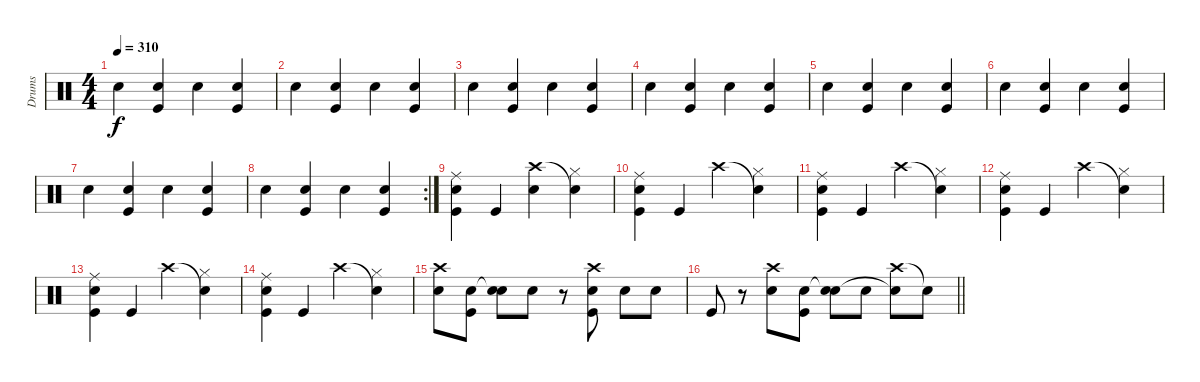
\track ("Drums" "Drums") {instrument percussion}
\staff {score}
\articulation defaults
\ts (4 4)
\tempo 310
\clef neutral
\ks c "Snare (hit) 2".4{dy f}
("Snare (hit) 2" "Kick (hit)").4 "Snare (hit) 2".4 ("Snare (hit) 2" "Kick (hit)").4 |
"Snare (hit) 2".4 ("Snare (hit) 2" "Kick (hit)").4 "Snare (hit) 2".4 ("Snare (hit) 2" "Kick (hit)").4 |
"Snare (hit) 2".4 ("Snare (hit) 2" "Kick (hit)").4 "Snare (hit) 2".4 ("Snare (hit) 2" "Kick (hit)").4 |
"Snare (hit) 2".4 ("Snare (hit) 2" "Kick (hit)").4 "Snare (hit) 2".4 ("Snare (hit) 2" "Kick (hit)").4 |
"Snare (hit) 2".4 ("Snare (hit) 2" "Kick (hit)").4 "Snare (hit) 2".4 ("Snare (hit) 2" "Kick (hit)").4 |
"Snare (hit) 2".4 ("Snare (hit) 2" "Kick (hit)").4 "Snare (hit) 2".4 ("Snare (hit) 2" "Kick (hit)").4 |
"Snare (hit) 2".4 ("Snare (hit) 2" "Kick (hit)").4 "Snare (hit) 2".4 ("Snare (hit) 2" "Kick (hit)").4 |
\rc 2 "Snare (hit) 2".4
("Snare (hit) 2" "Kick (hit)").4 "Snare (hit) 2".4 ("Snare (hit) 2" "Kick (hit)").4 |
("Snare (hit) 2" "Ride (middle)" "Kick (hit)").4{volume 16} "Kick (hit)".4 ("Crash high (hit)" "Snare (hit) 2").4 ("Snare (hit)"{t} "Hi-Hat (closed)").4 |
("Snare (hit) 2" "Ride (middle)" "Kick (hit)").4 "Kick (hit)".4 "Crash high (hit)".4 ("Snare (hit)"{t} "Hi-Hat (closed)").4 |
("Snare (hit) 2" "Ride (middle)" "Kick (hit)").4 "Kick (hit)".4 "Crash high (hit)".4 ("Snare (hit)"{t} "Hi-Hat (closed)").4 |
("Snare (hit) 2" "Ride (middle)" "Kick (hit)").4 "Kick (hit)".4 "Crash high (hit)".4 ("Snare (hit)"{t} "Hi-Hat (closed)").4 |
("Snare (hit) 2" "Ride (middle)" "Kick (hit)").4 "Kick (hit)".4 "Crash high (hit)".4 ("Snare (hit)"{t} "Hi-Hat (closed)").4 |
("Snare (hit) 2" "Ride (middle)" "Kick (hit)").4 "Kick (hit)".4 "Crash high (hit)".4 ("Snare (hit)"{t} "Hi-Hat (closed)").4 |
("Crash high (hit)" "Snare (hit) 2").8 ("Snare (hit) 2" "Kick (hit)").8 ("Snare (hit)"{t} "Snare (hit) 2").8 "Snare (hit) 2".8 r.8 ("Crash high (hit)" "Snare (hit) 2" "Kick (hit)").8 "Snare (hit) 2".8 "Snare (hit) 2".8 |
\barLineRight lightlight "Kick (hit)".8
r.8 ("Crash high (hit)" "Snare (hit) 2").8 ("Snare (hit) 2" "Kick (hit)").8 ("Snare (hit)"{t} "Snare (hit) 2").8 "Snare (hit) 2".8 ("Crash high (hit)" "Snare (hit)"{t}).8 "Snare (hit)"{t}.8
